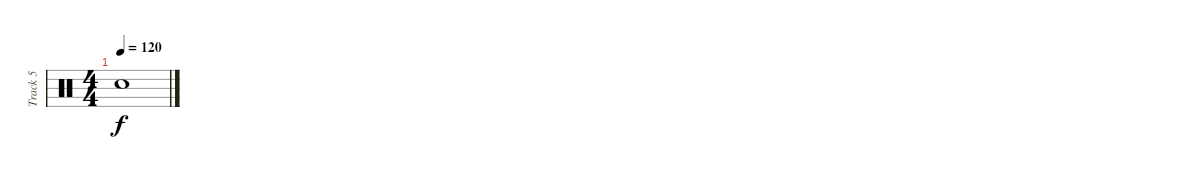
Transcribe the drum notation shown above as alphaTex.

\track ("Track 5" "Track 5") {instrument percussion}
\staff {score}
\articulation defaults
\ts (4 4)
\tempo 120
\clef neutral
\ks c "Snare (hit) 2".1{dy f}
